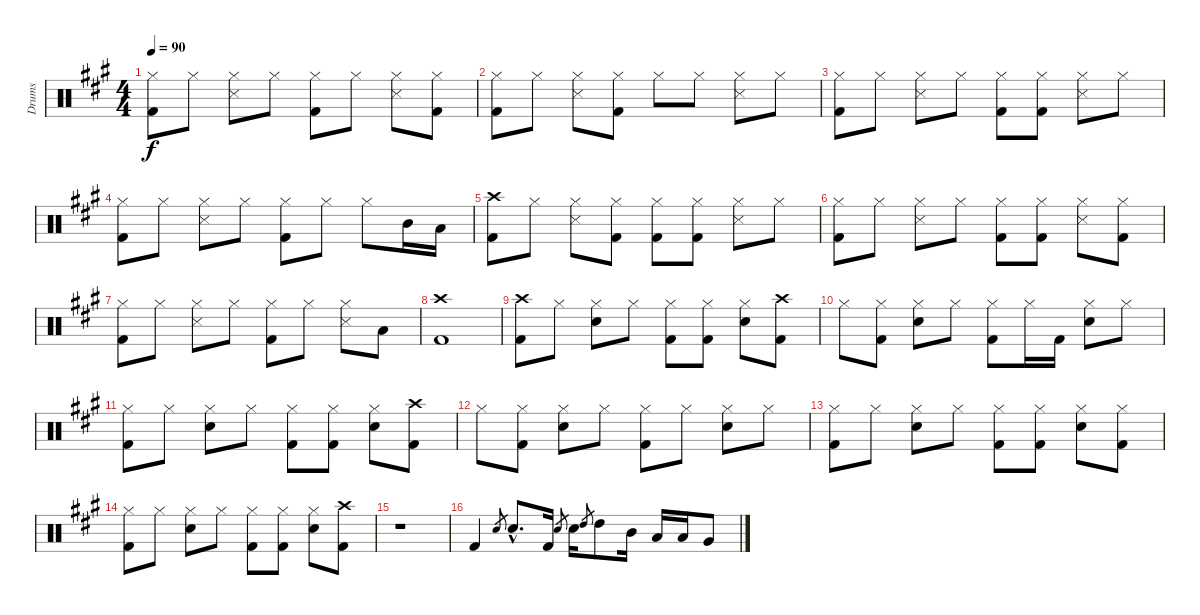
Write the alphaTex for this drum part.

\track ("Drums" "Drums") {instrument percussion}
\staff {score}
\articulation defaults
\ts (4 4)
\tempo 90
\clef neutral
\ks a
("Hi-Hat (closed)" "Kick (hit) 2").8{dy f} "Hi-Hat (closed)".8 ("Hi-Hat (closed)" "Snare (side stick) 3").8 "Hi-Hat (closed)".8 ("Hi-Hat (closed)" "Kick (hit) 2").8 "Hi-Hat (closed)".8 ("Hi-Hat (closed)" "Snare (side stick) 3").8 ("Hi-Hat (closed)" "Kick (hit) 2").8 |
("Hi-Hat (closed)" "Kick (hit) 2").8 "Hi-Hat (closed)".8 ("Hi-Hat (closed)" "Snare (side stick) 3").8 ("Hi-Hat (closed)" "Kick (hit) 2").8 "Hi-Hat (closed)".8 "Hi-Hat (closed)".8 ("Hi-Hat (closed)" "Snare (side stick) 3").8 "Hi-Hat (closed)".8 |
("Hi-Hat (closed)" "Kick (hit) 2").8 "Hi-Hat (closed)".8 ("Hi-Hat (closed)" "Snare (side stick) 3").8 "Hi-Hat (closed)".8 ("Hi-Hat (closed)" "Kick (hit) 2").8 ("Hi-Hat (closed)" "Kick (hit) 2").8 ("Hi-Hat (closed)" "Snare (side stick) 3").8 "Hi-Hat (closed)".8 |
("Hi-Hat (closed)" "Kick (hit) 2").8 "Hi-Hat (closed)".8 ("Hi-Hat (closed)" "Snare (side stick) 3").8 "Hi-Hat (closed)".8 ("Hi-Hat (closed)" "Kick (hit) 2").8 "Hi-Hat (closed)".8 "Hi-Hat (closed)".8 "Mid Tom (hit)".16 "Low Tom (hit)".16 |
("Crash high (hit)" "Kick (hit) 2").8 "Hi-Hat (closed)".8 ("Hi-Hat (closed)" "Snare (side stick) 3").8 ("Hi-Hat (closed)" "Kick (hit) 2").8 ("Hi-Hat (closed)" "Kick (hit) 2").8 ("Hi-Hat (closed)" "Kick (hit) 2").8 ("Hi-Hat (closed)" "Snare (side stick) 3").8 "Hi-Hat (closed)".8 |
("Hi-Hat (closed)" "Kick (hit) 2").8 "Hi-Hat (closed)".8 ("Hi-Hat (closed)" "Snare (side stick) 3").8 "Hi-Hat (closed)".8 ("Hi-Hat (closed)" "Kick (hit) 2").8 ("Hi-Hat (closed)" "Kick (hit) 2").8 ("Hi-Hat (closed)" "Snare (side stick) 3").8 ("Hi-Hat (closed)" "Kick (hit) 2").8 |
("Hi-Hat (closed)" "Kick (hit) 2").8 "Hi-Hat (closed)".8 ("Hi-Hat (closed)" "Snare (side stick) 3").8 "Hi-Hat (closed)".8 ("Hi-Hat (closed)" "Kick (hit) 2").8 "Hi-Hat (closed)".8 ("Hi-Hat (closed)" "Snare (side stick) 3").8 "Low Tom (hit)".8 |
("Crash high (hit)" "Kick (hit) 2").1 |
("Crash high (hit)" "Kick (hit) 2").8 "Hi-Hat (closed)".8 ("Hi-Hat (closed)" "Electric Snare (hit)").8 "Hi-Hat (closed)".8 ("Hi-Hat (closed)" "Kick (hit) 2").8 ("Hi-Hat (closed)" "Kick (hit) 2").8 ("Hi-Hat (closed)" "Electric Snare (hit)").8 ("Crash high (hit)" "Kick (hit) 2").8 |
"Hi-Hat (closed)".8 ("Hi-Hat (closed)" "Kick (hit) 2").8 ("Hi-Hat (closed)" "Electric Snare (hit)").8 "Hi-Hat (closed)".8 ("Hi-Hat (closed)" "Kick (hit) 2").8 "Hi-Hat (closed)".16 "Kick (hit) 2".16 ("Hi-Hat (closed)" "Electric Snare (hit)").8 "Hi-Hat (closed)".8 |
("Hi-Hat (closed)" "Kick (hit) 2").8 "Hi-Hat (closed)".8 ("Hi-Hat (closed)" "Electric Snare (hit)").8 "Hi-Hat (closed)".8 ("Hi-Hat (closed)" "Kick (hit) 2").8 ("Hi-Hat (closed)" "Kick (hit) 2").8 ("Hi-Hat (closed)" "Electric Snare (hit)").8 ("Crash high (hit)" "Kick (hit) 2").8 |
"Hi-Hat (closed)".8 ("Hi-Hat (closed)" "Kick (hit) 2").8 ("Hi-Hat (closed)" "Electric Snare (hit)").8 "Hi-Hat (closed)".8 ("Hi-Hat (closed)" "Kick (hit) 2").8 "Hi-Hat (closed)".8 ("Hi-Hat (closed)" "Electric Snare (hit)").8 "Hi-Hat (closed)".8 |
("Hi-Hat (closed)" "Kick (hit) 2").8 "Hi-Hat (closed)".8 ("Hi-Hat (closed)" "Electric Snare (hit)").8 "Hi-Hat (closed)".8 ("Hi-Hat (closed)" "Kick (hit) 2").8 ("Hi-Hat (closed)" "Kick (hit) 2").8 ("Hi-Hat (closed)" "Electric Snare (hit)").8 ("Hi-Hat (closed)" "Kick (hit) 2").8 |
("Hi-Hat (closed)" "Kick (hit) 2").8 "Hi-Hat (closed)".8 ("Hi-Hat (closed)" "Electric Snare (hit)").8 "Hi-Hat (closed)".8 ("Hi-Hat (closed)" "Kick (hit) 2").8 ("Hi-Hat (closed)" "Kick (hit) 2").8 ("Hi-Hat (closed)" "Electric Snare (hit)").8 ("Crash high (hit)" "Kick (hit) 2").8 |
r.1 |
"Kick (hit) 2".4 "Electric Snare (hit)".8{gr} "Electric Snare (hit)"{hac}.8{d} "Kick (hit) 2".16 "Electric Snare (hit)".8{gr} "Electric Snare (hit)".16 "High Tom (hit)".8{gr} "High Tom (hit)".8 "Mid Tom (hit)".16 "Low Tom (hit)".16 "Low Tom (hit)".16 "Very Low Tom (hit)".8
